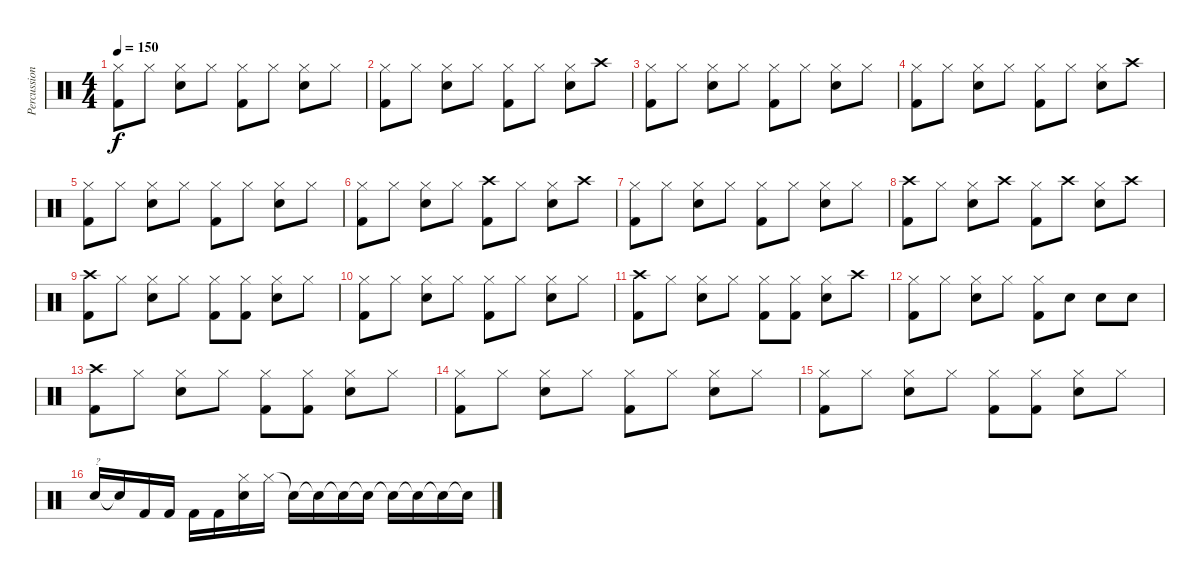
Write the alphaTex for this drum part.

\track ("Percussion" "Percussion") {instrument percussion}
\staff {score}
\articulation defaults
\ts (4 4)
\tempo 150
\clef neutral
\ks c
("Kick (hit) 2" "Hi-Hat (closed)").8{dy f} "Hi-Hat (closed)".8 ("Snare (hit) 2" "Hi-Hat (closed)").8 "Hi-Hat (closed)".8 ("Kick (hit) 2" "Hi-Hat (closed)").8 "Hi-Hat (closed)".8 ("Snare (hit) 2" "Hi-Hat (closed)").8 "Hi-Hat (closed)".8 |
("Kick (hit) 2" "Hi-Hat (closed)").8 "Hi-Hat (closed)".8 ("Snare (hit) 2" "Hi-Hat (closed)").8 "Hi-Hat (closed)".8 ("Kick (hit) 2" "Hi-Hat (closed)").8 "Hi-Hat (closed)".8 ("Snare (hit) 2" "Hi-Hat (closed)").8 "Crash high (hit)".8 |
("Kick (hit) 2" "Hi-Hat (closed)").8 "Hi-Hat (closed)".8 ("Snare (hit) 2" "Hi-Hat (closed)").8 "Hi-Hat (closed)".8 ("Kick (hit) 2" "Hi-Hat (closed)").8 "Hi-Hat (closed)".8 ("Snare (hit) 2" "Hi-Hat (closed)").8 "Hi-Hat (closed)".8 |
("Kick (hit) 2" "Hi-Hat (closed)").8 "Hi-Hat (closed)".8 ("Snare (hit) 2" "Hi-Hat (closed)").8 "Hi-Hat (closed)".8 ("Kick (hit) 2" "Hi-Hat (closed)").8 "Hi-Hat (closed)".8 ("Snare (hit) 2" "Hi-Hat (closed)").8 "Crash high (hit)".8 |
("Kick (hit) 2" "Hi-Hat (closed)").8 "Hi-Hat (closed)".8 ("Snare (hit) 2" "Hi-Hat (closed)").8 "Hi-Hat (closed)".8 ("Kick (hit) 2" "Hi-Hat (closed)").8 "Hi-Hat (closed)".8 ("Snare (hit) 2" "Hi-Hat (closed)").8 "Hi-Hat (closed)".8 |
("Kick (hit) 2" "Hi-Hat (closed)").8 "Hi-Hat (closed)".8 ("Snare (hit) 2" "Hi-Hat (closed)").8 "Hi-Hat (closed)".8 ("Kick (hit) 2" "Crash high (hit)").8 "Hi-Hat (closed)".8 ("Snare (hit) 2" "Hi-Hat (closed)").8 "Crash high (hit)".8 |
("Kick (hit) 2" "Hi-Hat (closed)").8 "Hi-Hat (closed)".8 ("Snare (hit) 2" "Hi-Hat (closed)").8 "Hi-Hat (closed)".8 ("Kick (hit) 2" "Hi-Hat (closed)").8 "Hi-Hat (closed)".8 ("Snare (hit) 2" "Hi-Hat (closed)").8 "Hi-Hat (closed)".8 |
("Kick (hit) 2" "Crash high (hit)").8 "Hi-Hat (closed)".8 ("Snare (hit) 2" "Hi-Hat (closed)").8 "Crash high (hit)".8 ("Kick (hit) 2" "Hi-Hat (closed)").8 "Crash high (hit)".8 ("Snare (hit) 2" "Hi-Hat (closed)").8 "Crash high (hit)".8 |
("Kick (hit) 2" "Crash high (hit)").8 "Hi-Hat (closed)".8 ("Snare (hit) 2" "Hi-Hat (closed)").8 "Hi-Hat (closed)".8 ("Kick (hit) 2" "Hi-Hat (closed)").8 ("Kick (hit) 2" "Hi-Hat (closed)").8 ("Snare (hit) 2" "Hi-Hat (closed)").8 "Hi-Hat (closed)".8 |
("Kick (hit) 2" "Hi-Hat (closed)").8 "Hi-Hat (closed)".8 ("Snare (hit) 2" "Hi-Hat (closed)").8 "Hi-Hat (closed)".8 ("Kick (hit) 2" "Hi-Hat (closed)").8 "Hi-Hat (closed)".8 ("Snare (hit) 2" "Hi-Hat (closed)").8 "Hi-Hat (closed)".8 |
("Kick (hit) 2" "Crash high (hit)").8 "Hi-Hat (closed)".8 ("Snare (hit) 2" "Hi-Hat (closed)").8 "Hi-Hat (closed)".8 ("Kick (hit) 2" "Hi-Hat (closed)").8 ("Kick (hit) 2" "Hi-Hat (closed)").8 ("Snare (hit) 2" "Hi-Hat (closed)").8 "Crash high (hit)".8 |
("Kick (hit) 2" "Hi-Hat (closed)").8 "Hi-Hat (closed)".8 ("Snare (hit) 2" "Hi-Hat (closed)").8 "Hi-Hat (closed)".8 ("Kick (hit) 2" "Hi-Hat (closed)").8 "Snare (hit) 2".8 "Snare (hit) 2".8 "Snare (hit) 2".8 |
("Kick (hit) 2" "Crash high (hit)").8 "Hi-Hat (closed)".8 ("Snare (hit) 2" "Hi-Hat (closed)").8 "Hi-Hat (closed)".8 ("Kick (hit) 2" "Hi-Hat (closed)").8 ("Kick (hit) 2" "Hi-Hat (closed)").8 ("Snare (hit) 2" "Hi-Hat (closed)").8 "Hi-Hat (closed)".8 |
("Kick (hit) 2" "Hi-Hat (closed)").8 "Hi-Hat (closed)".8 ("Snare (hit) 2" "Hi-Hat (closed)").8 "Hi-Hat (closed)".8 ("Kick (hit) 2" "Hi-Hat (closed)").8 "Hi-Hat (closed)".8 ("Snare (hit) 2" "Hi-Hat (closed)").8 "Hi-Hat (closed)".8 |
("Kick (hit) 2" "Hi-Hat (closed)").8 "Hi-Hat (closed)".8 ("Snare (hit) 2" "Hi-Hat (closed)").8 "Hi-Hat (closed)".8 ("Kick (hit) 2" "Hi-Hat (closed)").8 ("Kick (hit) 2" "Hi-Hat (closed)").8 ("Snare (hit) 2" "Hi-Hat (closed)").8 "Hi-Hat (closed)".8 |
"Snare (hit) 2".16{txt "?"} "Snare (hit)"{t}.16 "Kick (hit) 2".16 "Kick (hit) 2".16 "Kick (hit) 2".16 "Kick (hit) 2".16 ("Snare (hit) 2" "Hi-Hat (closed)").16 "Hi-Hat (closed)".16 "Snare (hit)"{t}.16 "Snare (hit)"{t}.16 "Snare (hit)"{t}.16 "Snare (hit)"{t}.16 "Snare (hit)"{t}.16 "Snare (hit)"{t}.16 "Snare (hit)"{t}.16 "Snare (hit)"{t}.16
